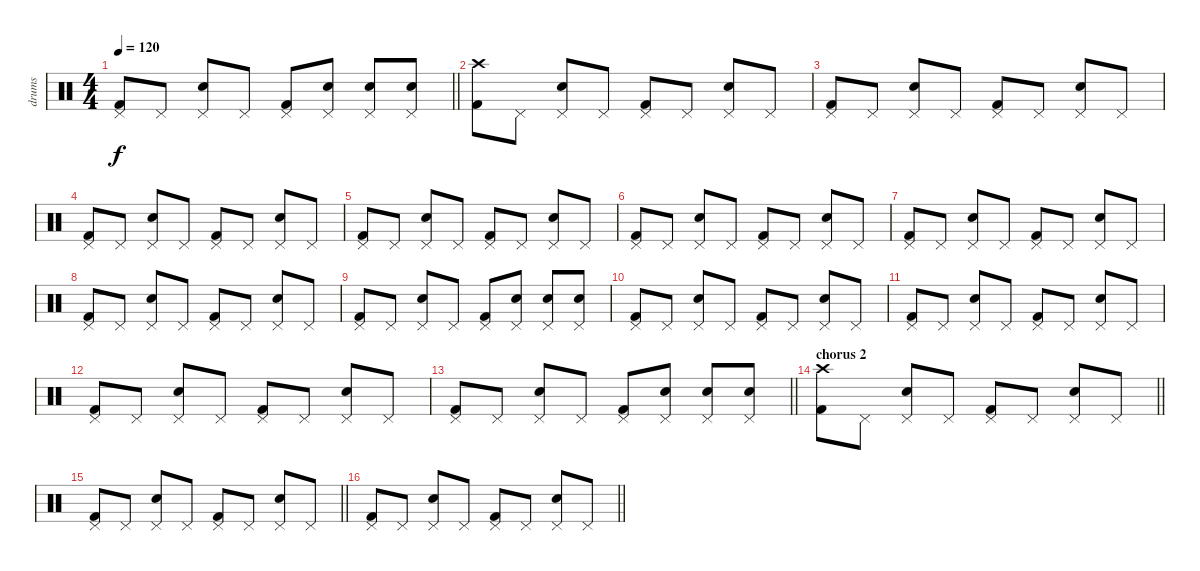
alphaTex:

\track ("drums" "drums") {instrument percussion}
\staff {score}
\articulation defaults
\ts (4 4)
\tempo 120
\clef neutral
\barLineRight lightlight
\ks c
("Kick (hit) 2" "Pedal Hi-Hat (hit)").8{dy f} "Pedal Hi-Hat (hit)".8 ("Electric Snare (hit)" "Pedal Hi-Hat (hit)").8 "Pedal Hi-Hat (hit)".8 ("Kick (hit) 2" "Pedal Hi-Hat (hit)").8 ("Electric Snare (hit)" "Pedal Hi-Hat (hit)").8 ("Electric Snare (hit)" "Pedal Hi-Hat (hit)").8 ("Electric Snare (hit)" "Pedal Hi-Hat (hit)").8 |
("Kick (hit) 2" "Crash high (hit)").8 "Pedal Hi-Hat (hit)".8 ("Electric Snare (hit)" "Pedal Hi-Hat (hit)").8 "Pedal Hi-Hat (hit)".8 ("Kick (hit) 2" "Pedal Hi-Hat (hit)").8 "Pedal Hi-Hat (hit)".8 ("Electric Snare (hit)" "Pedal Hi-Hat (hit)").8 "Pedal Hi-Hat (hit)".8 |
("Kick (hit) 2" "Pedal Hi-Hat (hit)").8 "Pedal Hi-Hat (hit)".8 ("Electric Snare (hit)" "Pedal Hi-Hat (hit)").8 "Pedal Hi-Hat (hit)".8 ("Kick (hit) 2" "Pedal Hi-Hat (hit)").8 "Pedal Hi-Hat (hit)".8 ("Electric Snare (hit)" "Pedal Hi-Hat (hit)").8 "Pedal Hi-Hat (hit)".8 |
("Kick (hit) 2" "Pedal Hi-Hat (hit)").8 "Pedal Hi-Hat (hit)".8 ("Electric Snare (hit)" "Pedal Hi-Hat (hit)").8 "Pedal Hi-Hat (hit)".8 ("Kick (hit) 2" "Pedal Hi-Hat (hit)").8 "Pedal Hi-Hat (hit)".8 ("Electric Snare (hit)" "Pedal Hi-Hat (hit)").8 "Pedal Hi-Hat (hit)".8 |
("Kick (hit) 2" "Pedal Hi-Hat (hit)").8 "Pedal Hi-Hat (hit)".8 ("Electric Snare (hit)" "Pedal Hi-Hat (hit)").8 "Pedal Hi-Hat (hit)".8 ("Kick (hit) 2" "Pedal Hi-Hat (hit)").8 "Pedal Hi-Hat (hit)".8 ("Electric Snare (hit)" "Pedal Hi-Hat (hit)").8 "Pedal Hi-Hat (hit)".8 |
("Kick (hit) 2" "Pedal Hi-Hat (hit)").8 "Pedal Hi-Hat (hit)".8 ("Electric Snare (hit)" "Pedal Hi-Hat (hit)").8 "Pedal Hi-Hat (hit)".8 ("Kick (hit) 2" "Pedal Hi-Hat (hit)").8 "Pedal Hi-Hat (hit)".8 ("Electric Snare (hit)" "Pedal Hi-Hat (hit)").8 "Pedal Hi-Hat (hit)".8 |
("Kick (hit) 2" "Pedal Hi-Hat (hit)").8 "Pedal Hi-Hat (hit)".8 ("Electric Snare (hit)" "Pedal Hi-Hat (hit)").8 "Pedal Hi-Hat (hit)".8 ("Kick (hit) 2" "Pedal Hi-Hat (hit)").8 "Pedal Hi-Hat (hit)".8 ("Electric Snare (hit)" "Pedal Hi-Hat (hit)").8 "Pedal Hi-Hat (hit)".8 |
("Kick (hit) 2" "Pedal Hi-Hat (hit)").8 "Pedal Hi-Hat (hit)".8 ("Electric Snare (hit)" "Pedal Hi-Hat (hit)").8 "Pedal Hi-Hat (hit)".8 ("Kick (hit) 2" "Pedal Hi-Hat (hit)").8 "Pedal Hi-Hat (hit)".8 ("Electric Snare (hit)" "Pedal Hi-Hat (hit)").8 "Pedal Hi-Hat (hit)".8 |
("Kick (hit) 2" "Pedal Hi-Hat (hit)").8 "Pedal Hi-Hat (hit)".8 ("Electric Snare (hit)" "Pedal Hi-Hat (hit)").8 "Pedal Hi-Hat (hit)".8 ("Kick (hit) 2" "Pedal Hi-Hat (hit)").8 ("Electric Snare (hit)" "Pedal Hi-Hat (hit)").8 ("Electric Snare (hit)" "Pedal Hi-Hat (hit)").8 ("Electric Snare (hit)" "Pedal Hi-Hat (hit)").8 |
("Kick (hit) 2" "Pedal Hi-Hat (hit)").8 "Pedal Hi-Hat (hit)".8 ("Electric Snare (hit)" "Pedal Hi-Hat (hit)").8 "Pedal Hi-Hat (hit)".8 ("Kick (hit) 2" "Pedal Hi-Hat (hit)").8 "Pedal Hi-Hat (hit)".8 ("Electric Snare (hit)" "Pedal Hi-Hat (hit)").8 "Pedal Hi-Hat (hit)".8 |
("Kick (hit) 2" "Pedal Hi-Hat (hit)").8 "Pedal Hi-Hat (hit)".8 ("Electric Snare (hit)" "Pedal Hi-Hat (hit)").8 "Pedal Hi-Hat (hit)".8 ("Kick (hit) 2" "Pedal Hi-Hat (hit)").8 "Pedal Hi-Hat (hit)".8 ("Electric Snare (hit)" "Pedal Hi-Hat (hit)").8 "Pedal Hi-Hat (hit)".8 |
("Kick (hit) 2" "Pedal Hi-Hat (hit)").8 "Pedal Hi-Hat (hit)".8 ("Electric Snare (hit)" "Pedal Hi-Hat (hit)").8 "Pedal Hi-Hat (hit)".8 ("Kick (hit) 2" "Pedal Hi-Hat (hit)").8 "Pedal Hi-Hat (hit)".8 ("Electric Snare (hit)" "Pedal Hi-Hat (hit)").8 "Pedal Hi-Hat (hit)".8 |
\barLineRight lightlight
("Kick (hit) 2" "Pedal Hi-Hat (hit)").8 "Pedal Hi-Hat (hit)".8 ("Electric Snare (hit)" "Pedal Hi-Hat (hit)").8 "Pedal Hi-Hat (hit)".8 ("Kick (hit) 2" "Pedal Hi-Hat (hit)").8 ("Electric Snare (hit)" "Pedal Hi-Hat (hit)").8 ("Electric Snare (hit)" "Pedal Hi-Hat (hit)").8 ("Electric Snare (hit)" "Pedal Hi-Hat (hit)").8 |
\section ("" "chorus 2")
\barLineRight lightlight
("Kick (hit) 2" "Crash high (hit)").8 "Pedal Hi-Hat (hit)".8 ("Electric Snare (hit)" "Pedal Hi-Hat (hit)").8 "Pedal Hi-Hat (hit)".8 ("Kick (hit) 2" "Pedal Hi-Hat (hit)").8 "Pedal Hi-Hat (hit)".8 ("Electric Snare (hit)" "Pedal Hi-Hat (hit)").8 "Pedal Hi-Hat (hit)".8 |
\barLineRight lightlight
("Kick (hit) 2" "Pedal Hi-Hat (hit)").8 "Pedal Hi-Hat (hit)".8 ("Electric Snare (hit)" "Pedal Hi-Hat (hit)").8 "Pedal Hi-Hat (hit)".8 ("Kick (hit) 2" "Pedal Hi-Hat (hit)").8 "Pedal Hi-Hat (hit)".8 ("Electric Snare (hit)" "Pedal Hi-Hat (hit)").8 "Pedal Hi-Hat (hit)".8 |
\barLineRight lightlight
("Kick (hit) 2" "Pedal Hi-Hat (hit)").8 "Pedal Hi-Hat (hit)".8 ("Electric Snare (hit)" "Pedal Hi-Hat (hit)").8 "Pedal Hi-Hat (hit)".8 ("Kick (hit) 2" "Pedal Hi-Hat (hit)").8 "Pedal Hi-Hat (hit)".8 ("Electric Snare (hit)" "Pedal Hi-Hat (hit)").8 "Pedal Hi-Hat (hit)".8
